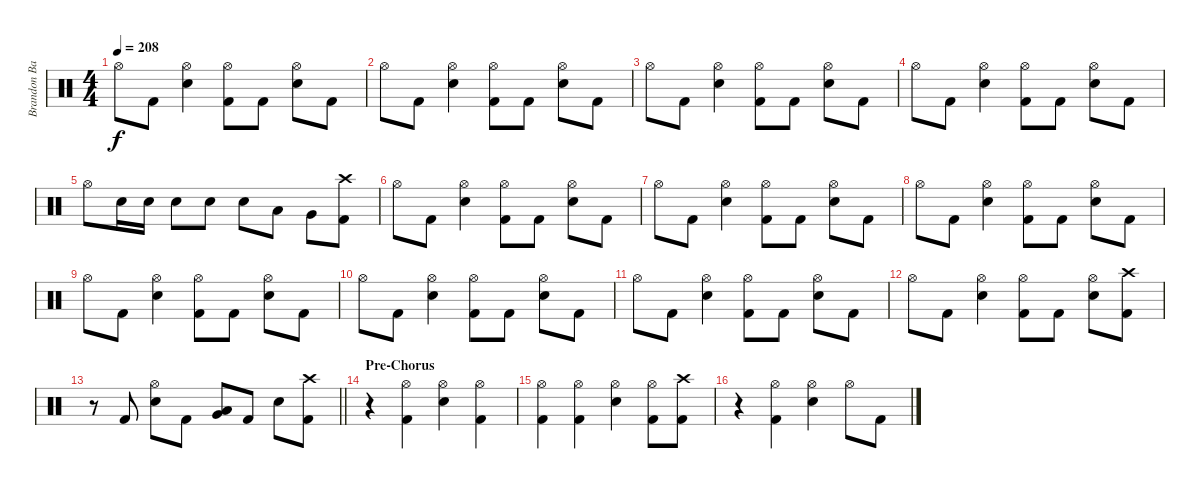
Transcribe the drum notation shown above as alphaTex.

\track ("Brandon Barnes - Drums" "Brandon Ba") {instrument percussion}
\staff {score}
\articulation defaults
\ts (4 4)
\tempo 208
\clef neutral
\ks c "Hi-Hat (open)".8{dy f} "Kick (hit) 2".8
("Snare (hit) 2" "Hi-Hat (open)").4 ("Kick (hit) 2" "Hi-Hat (open)").8 "Kick (hit) 2".8 ("Snare (hit) 2" "Hi-Hat (open)").8 "Kick (hit) 2".8 |
"Hi-Hat (open)".8 "Kick (hit) 2".8 ("Snare (hit) 2" "Hi-Hat (open)").4 ("Kick (hit) 2" "Hi-Hat (open)").8 "Kick (hit) 2".8 ("Snare (hit) 2" "Hi-Hat (open)").8 "Kick (hit) 2".8 |
"Hi-Hat (open)".8 "Kick (hit) 2".8 ("Snare (hit) 2" "Hi-Hat (open)").4 ("Kick (hit) 2" "Hi-Hat (open)").8 "Kick (hit) 2".8 ("Snare (hit) 2" "Hi-Hat (open)").8 "Kick (hit) 2".8 |
"Hi-Hat (open)".8 "Kick (hit) 2".8 ("Snare (hit) 2" "Hi-Hat (open)").4 ("Kick (hit) 2" "Hi-Hat (open)").8 "Kick (hit) 2".8 ("Snare (hit) 2" "Hi-Hat (open)").8 "Kick (hit) 2".8 |
"Hi-Hat (open)".8 "Snare (hit) 2".16 "Snare (hit) 2".16 "Snare (hit) 2".8 "Snare (hit) 2".8 "Snare (hit) 2".8 "Low Tom (hit)".8 "Very Low Tom (hit)".8 ("Crash high (hit)" "Kick (hit) 2").8 |
"Hi-Hat (open)".8 "Kick (hit) 2".8 ("Snare (hit) 2" "Hi-Hat (open)").4 ("Kick (hit) 2" "Hi-Hat (open)").8 "Kick (hit) 2".8 ("Snare (hit) 2" "Hi-Hat (open)").8 "Kick (hit) 2".8 |
"Hi-Hat (open)".8 "Kick (hit) 2".8 ("Snare (hit) 2" "Hi-Hat (open)").4 ("Kick (hit) 2" "Hi-Hat (open)").8 "Kick (hit) 2".8 ("Snare (hit) 2" "Hi-Hat (open)").8 "Kick (hit) 2".8 |
"Hi-Hat (open)".8 "Kick (hit) 2".8 ("Snare (hit) 2" "Hi-Hat (open)").4 ("Kick (hit) 2" "Hi-Hat (open)").8 "Kick (hit) 2".8 ("Snare (hit) 2" "Hi-Hat (open)").8 "Kick (hit) 2".8 |
"Hi-Hat (open)".8 "Kick (hit) 2".8 ("Snare (hit) 2" "Hi-Hat (open)").4 ("Kick (hit) 2" "Hi-Hat (open)").8 "Kick (hit) 2".8 ("Snare (hit) 2" "Hi-Hat (open)").8 "Kick (hit) 2".8 |
"Hi-Hat (open)".8 "Kick (hit) 2".8 ("Snare (hit) 2" "Hi-Hat (open)").4 ("Kick (hit) 2" "Hi-Hat (open)").8 "Kick (hit) 2".8 ("Snare (hit) 2" "Hi-Hat (open)").8 "Kick (hit) 2".8 |
"Hi-Hat (open)".8 "Kick (hit) 2".8 ("Snare (hit) 2" "Hi-Hat (open)").4 ("Kick (hit) 2" "Hi-Hat (open)").8 "Kick (hit) 2".8 ("Snare (hit) 2" "Hi-Hat (open)").8 "Kick (hit) 2".8 |
"Hi-Hat (open)".8 "Kick (hit) 2".8 ("Snare (hit) 2" "Hi-Hat (open)").4 ("Kick (hit) 2" "Hi-Hat (open)").8 "Kick (hit) 2".8 ("Snare (hit) 2" "Hi-Hat (open)").8 ("Kick (hit) 2" "Crash high (hit)").8 |
\barLineRight lightlight
r.8 "Kick (hit) 2".8 ("Snare (hit) 2" "Hi-Hat (open)").8 "Kick (hit) 2".8 ("Low Tom (hit)" "Very Low Tom (hit)").8 "Kick (hit) 2".8 "Snare (hit) 2".8 ("Crash high (hit)" "Kick (hit) 2").8 |
\section ("" "Pre-Chorus")
r.4 ("Hi-Hat (open)" "Kick (hit) 2").4 ("Snare (hit) 2" "Hi-Hat (open)").4 ("Kick (hit) 2" "Hi-Hat (open)").4 |
("Kick (hit) 2" "Hi-Hat (open)").4 ("Kick (hit) 2" "Hi-Hat (open)").4 ("Snare (hit) 2" "Hi-Hat (open)").4 ("Kick (hit) 2" "Hi-Hat (open)").8 ("Crash high (hit)" "Kick (hit) 2").8 |
r.4 ("Hi-Hat (open)" "Kick (hit) 2").4 ("Snare (hit) 2" "Hi-Hat (open)").4 "Hi-Hat (open)".8 "Kick (hit) 2".8
